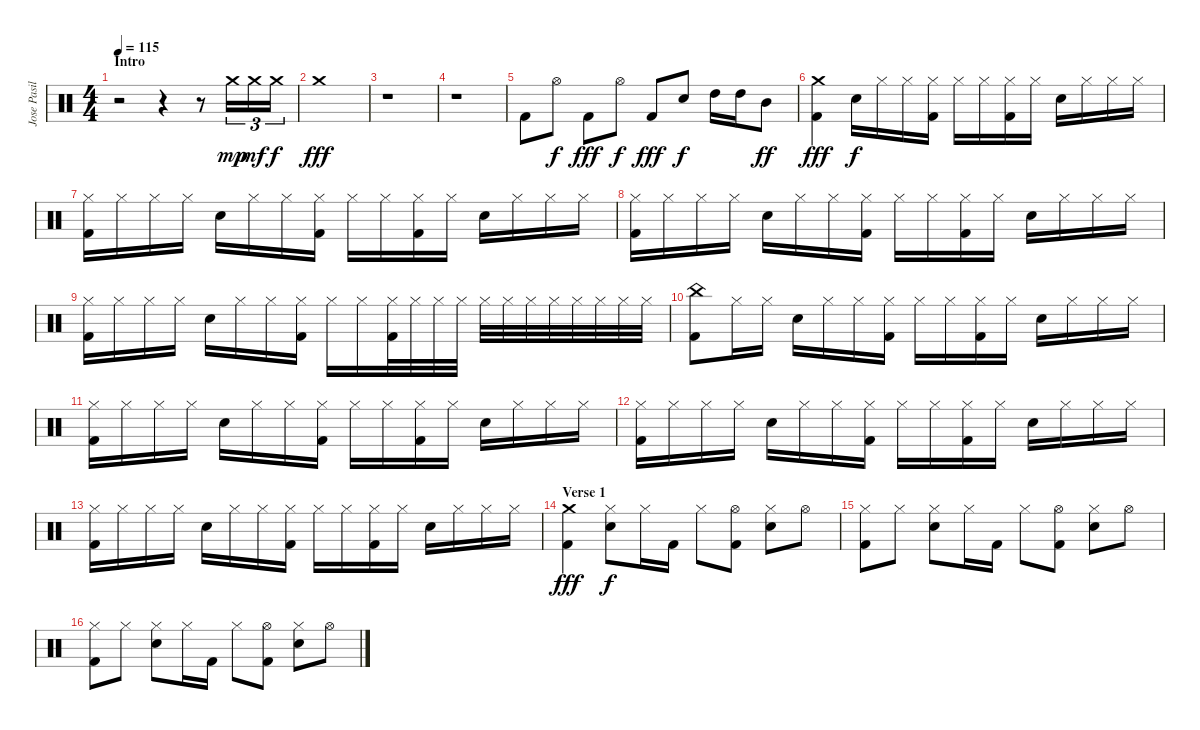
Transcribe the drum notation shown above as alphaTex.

\track ("Jose Pasillas - Drums" "Jose Pasil") {instrument percussion}
\staff {score}
\articulation defaults
\ts (4 4)
\section ("" "Intro")
\tempo 115
\clef neutral
\ks c
r.2{dy mp} r.4 r.8 "Crash medium (hit)".16{tu (3 2)} "Crash medium (hit)".16{tu (3 2) dy mf} "Crash medium (hit)".16{tu (3 2) dy f} |
"Crash medium (hit)".1{dy fff} |
r.1 |
r.1 |
"Kick (hit) 2".8 "Hi-Hat (open)".8{dy f} "Kick (hit) 2".8{dy fff} "Hi-Hat (open)".8{dy f} "Kick (hit) 2".8{dy fff} "Electric Snare (hit)".8{dy f} "High Tom (hit)".16 "High Tom (hit)".16 "Mid Tom (hit)".8{dy ff} |
("Crash medium (hit)" "Kick (hit) 2").4{dy fff} "Electric Snare (hit)".16{dy f} "Hi-Hat (closed)".16 "Hi-Hat (closed)".16 ("Hi-Hat (closed)" "Kick (hit) 2").16 "Hi-Hat (closed)".16 "Hi-Hat (closed)".16 ("Hi-Hat (closed)" "Kick (hit) 2").16 "Hi-Hat (closed)".16 "Electric Snare (hit)".16 "Hi-Hat (closed)".16 "Hi-Hat (closed)".16 "Hi-Hat (closed)".16 |
("Hi-Hat (closed)" "Kick (hit) 2").16 "Hi-Hat (closed)".16 "Hi-Hat (closed)".16 "Hi-Hat (closed)".16 "Electric Snare (hit)".16 "Hi-Hat (closed)".16 "Hi-Hat (closed)".16 ("Hi-Hat (closed)" "Kick (hit) 2").16 "Hi-Hat (closed)".16 "Hi-Hat (closed)".16 ("Hi-Hat (closed)" "Kick (hit) 2").16 "Hi-Hat (closed)".16 "Electric Snare (hit)".16 "Hi-Hat (closed)".16 "Hi-Hat (closed)".16 "Hi-Hat (closed)".16 |
("Hi-Hat (closed)" "Kick (hit) 2").16 "Hi-Hat (closed)".16 "Hi-Hat (closed)".16 "Hi-Hat (closed)".16 "Electric Snare (hit)".16 "Hi-Hat (closed)".16 "Hi-Hat (closed)".16 ("Hi-Hat (closed)" "Kick (hit) 2").16 "Hi-Hat (closed)".16 "Hi-Hat (closed)".16 ("Hi-Hat (closed)" "Kick (hit) 2").16 "Hi-Hat (closed)".16 "Electric Snare (hit)".16 "Hi-Hat (closed)".16 "Hi-Hat (closed)".16 "Hi-Hat (closed)".16 |
("Hi-Hat (closed)" "Kick (hit) 2").16 "Hi-Hat (closed)".16 "Hi-Hat (closed)".16 "Hi-Hat (closed)".16 "Electric Snare (hit)".16 "Hi-Hat (closed)".16 "Hi-Hat (closed)".16 ("Hi-Hat (closed)" "Kick (hit) 2").16 "Hi-Hat (closed)".16 "Hi-Hat (closed)".16 ("Hi-Hat (closed)" "Kick (hit) 2").32 "Hi-Hat (closed)".32 "Hi-Hat (closed)".32 "Hi-Hat (closed)".32 "Hi-Hat (closed)".32 "Hi-Hat (closed)".32 "Hi-Hat (closed)".32 "Hi-Hat (closed)".32 "Hi-Hat (closed)".32 "Hi-Hat (closed)".32 "Hi-Hat (closed)".32 "Hi-Hat (closed)".32 |
("China (hit)" "Kick (hit) 2").8 "Hi-Hat (closed)".16 "Hi-Hat (closed)".16 "Electric Snare (hit)".16 "Hi-Hat (closed)".16 "Hi-Hat (closed)".16 ("Hi-Hat (closed)" "Kick (hit) 2").16 "Hi-Hat (closed)".16 "Hi-Hat (closed)".16 ("Hi-Hat (closed)" "Kick (hit) 2").16 "Hi-Hat (closed)".16 "Electric Snare (hit)".16 "Hi-Hat (closed)".16 "Hi-Hat (closed)".16 "Hi-Hat (closed)".16 |
("Hi-Hat (closed)" "Kick (hit) 2").16 "Hi-Hat (closed)".16 "Hi-Hat (closed)".16 "Hi-Hat (closed)".16 "Electric Snare (hit)".16 "Hi-Hat (closed)".16 "Hi-Hat (closed)".16 ("Hi-Hat (closed)" "Kick (hit) 2").16 "Hi-Hat (closed)".16 "Hi-Hat (closed)".16 ("Hi-Hat (closed)" "Kick (hit) 2").16 "Hi-Hat (closed)".16 "Electric Snare (hit)".16 "Hi-Hat (closed)".16 "Hi-Hat (closed)".16 "Hi-Hat (closed)".16 |
("Hi-Hat (closed)" "Kick (hit) 2").16 "Hi-Hat (closed)".16 "Hi-Hat (closed)".16 "Hi-Hat (closed)".16 "Electric Snare (hit)".16 "Hi-Hat (closed)".16 "Hi-Hat (closed)".16 ("Hi-Hat (closed)" "Kick (hit) 2").16 "Hi-Hat (closed)".16 "Hi-Hat (closed)".16 ("Hi-Hat (closed)" "Kick (hit) 2").16 "Hi-Hat (closed)".16 "Electric Snare (hit)".16 "Hi-Hat (closed)".16 "Hi-Hat (closed)".16 "Hi-Hat (closed)".16 |
("Hi-Hat (closed)" "Kick (hit) 2").16 "Hi-Hat (closed)".16 "Hi-Hat (closed)".16 "Hi-Hat (closed)".16 "Electric Snare (hit)".16 "Hi-Hat (closed)".16 "Hi-Hat (closed)".16 ("Hi-Hat (closed)" "Kick (hit) 2").16 "Hi-Hat (closed)".16 "Hi-Hat (closed)".16 ("Hi-Hat (closed)" "Kick (hit) 2").16 "Hi-Hat (closed)".16 "Electric Snare (hit)".16 "Hi-Hat (closed)".16 "Hi-Hat (closed)".16 "Hi-Hat (closed)".16 |
\section ("" "Verse 1")
("Crash medium (hit)" "Kick (hit) 2").4{dy fff} ("Hi-Hat (closed)" "Electric Snare (hit)").8{dy f} "Hi-Hat (closed)".16 "Kick (hit) 2".16 "Hi-Hat (closed)".8 ("Hi-Hat (open)" "Kick (hit) 2").8 ("Hi-Hat (closed)" "Electric Snare (hit)").8 "Hi-Hat (open)".8 |
("Hi-Hat (closed)" "Kick (hit) 2").8 "Hi-Hat (closed)".8 ("Hi-Hat (closed)" "Electric Snare (hit)").8 "Hi-Hat (closed)".16 "Kick (hit) 2".16 "Hi-Hat (closed)".8 ("Hi-Hat (open)" "Kick (hit) 2").8 ("Hi-Hat (closed)" "Electric Snare (hit)").8 "Hi-Hat (open)".8 |
("Hi-Hat (closed)" "Kick (hit) 2").8 "Hi-Hat (closed)".8 ("Hi-Hat (closed)" "Electric Snare (hit)").8 "Hi-Hat (closed)".16 "Kick (hit) 2".16 "Hi-Hat (closed)".8 ("Hi-Hat (open)" "Kick (hit) 2").8 ("Hi-Hat (closed)" "Electric Snare (hit)").8 "Hi-Hat (open)".8
